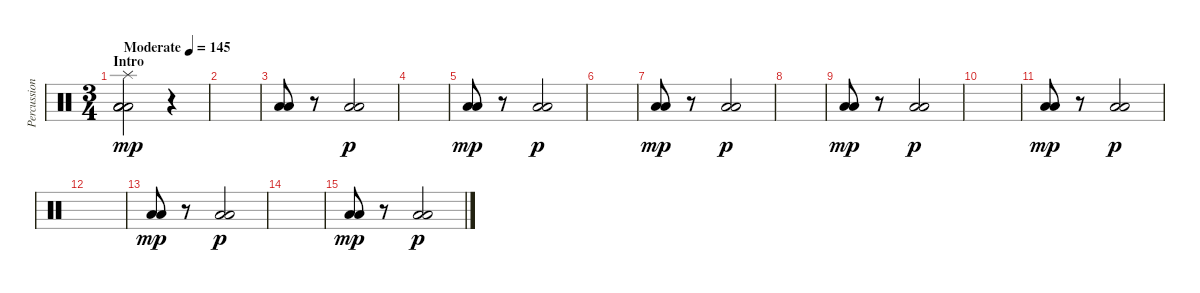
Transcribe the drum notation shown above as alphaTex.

\track ("Percussion" "Percussion") {instrument percussion}
\staff {score}
\articulation defaults
\ts (3 4)
\section ("" "Intro")
\tempo (145 "Moderate")
\clef neutral
\ks c
("Low Tom (hit)" "Low Floor Tom (hit)" "Low Floor Tom (hit)" "Splash (hit)").2{dy mp} r.4 |
|
("Low Floor Tom (hit)" "Low Tom (hit)").8 r.8 ("Low Floor Tom (hit)" "Low Tom (hit)").2{dy p} |
|
("Low Floor Tom (hit)" "Low Tom (hit)").8{dy mp} r.8 ("Low Floor Tom (hit)" "Low Tom (hit)").2{dy p} |
|
("Low Floor Tom (hit)" "Low Tom (hit)").8{dy mp} r.8 ("Low Floor Tom (hit)" "Low Tom (hit)").2{dy p} |
|
("Low Floor Tom (hit)" "Low Tom (hit)").8{dy mp} r.8 ("Low Floor Tom (hit)" "Low Tom (hit)").2{dy p} |
|
("Low Floor Tom (hit)" "Low Tom (hit)").8{dy mp} r.8 ("Low Floor Tom (hit)" "Low Tom (hit)").2{dy p} |
|
("Low Floor Tom (hit)" "Low Tom (hit)").8{dy mp} r.8 ("Low Floor Tom (hit)" "Low Tom (hit)").2{dy p} |
|
("Low Floor Tom (hit)" "Low Tom (hit)").8{dy mp} r.8 ("Low Floor Tom (hit)" "Low Tom (hit)").2{dy p}
